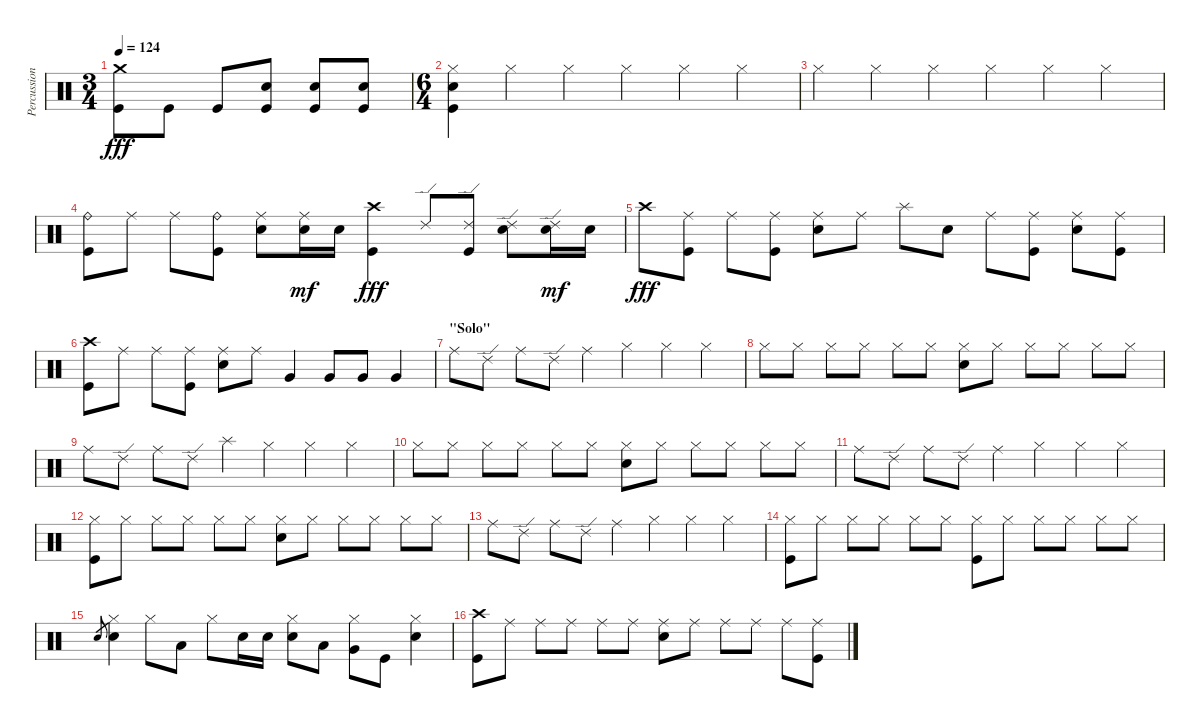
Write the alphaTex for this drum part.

\track ("Percussion" "Percussion") {instrument percussion}
\staff {score}
\articulation defaults
\ts (3 4)
\tempo 124
\clef neutral
\ks c
("Crash medium (hit)" "Kick (hit)").8{dy fff} "Kick (hit)".8 "Kick (hit)".8 ("Snare (hit) 2" "Kick (hit)").8 ("Snare (hit) 2" "Kick (hit)").8 ("Snare (hit) 2" "Kick (hit)").8 |
\ts (6 4)
("Hi-Hat (closed)" "Snare (hit) 2" "Kick (hit)").4 "Hi-Hat (closed)".4 "Hi-Hat (closed)".4 "Hi-Hat (closed)".4 "Hi-Hat (closed)".4 "Hi-Hat (closed)".4 |
"Hi-Hat (closed)".4 "Hi-Hat (closed)".4 "Hi-Hat (closed)".4 "Hi-Hat (closed)".4 "Hi-Hat (closed)".4 "Hi-Hat (closed)".4 |
("Ride (bell)" "Kick (hit)").8 "Ride (middle)".8 "Ride (middle)".8 ("Ride (bell)" "Kick (hit)").8 ("Ride (middle)" "Snare (hit) 2").8 ("Ride (middle)" "Snare (hit) 2").16{dy mf} "Snare (hit) 2".16 ("Crash high (hit)" "Kick (hit)").4{dy fff} "Ride (edge) 2".8 ("Ride (edge) 2" "Kick (hit)").8 ("Ride (edge) 2" "Snare (hit) 2").8 ("Ride (edge) 2" "Snare (hit) 2").16{dy mf} "Snare (hit) 2".16 |
"Crash high (hit)".8{dy fff} ("Ride (middle)" "Kick (hit)").8 "Ride (middle)".8 ("Ride (middle)" "Kick (hit)").8 ("Ride (middle)" "Snare (hit) 2").8 "Ride (middle)".8 "Splash (hit)".8 "Snare (hit) 2".8 "Ride (middle)".8 ("Ride (middle)" "Kick (hit)").8 ("Ride (middle)" "Snare (hit) 2").8 ("Ride (middle)" "Kick (hit)").8 |
("Crash high (hit)" "Kick (hit)").8 "Ride (middle)".8 "Ride (middle)".8 ("Ride (middle)" "Kick (hit)").8 ("Ride (middle)" "Snare (hit) 2").8 "Ride (middle)".8 "Very Low Tom (hit)".4 "Very Low Tom (hit)".8 "Very Low Tom (hit)".8 "Very Low Tom (hit)".4 |
\section ("" "\"Solo\"")
"Ride (middle)".8 "Ride (edge) 2".8 "Ride (middle)".8 "Ride (edge) 2".8 "Ride (middle)".4 "Hi-Hat (closed)".4 "Hi-Hat (closed)".4 "Hi-Hat (closed)".4 |
"Hi-Hat (closed)".8 "Hi-Hat (closed)".8 "Hi-Hat (closed)".8 "Hi-Hat (closed)".8 "Hi-Hat (closed)".8 "Hi-Hat (closed)".8 ("Hi-Hat (closed)" "Electric Snare (hit)").8 "Hi-Hat (closed)".8 "Hi-Hat (closed)".8 "Hi-Hat (closed)".8 "Hi-Hat (closed)".8 "Hi-Hat (closed)".8 |
"Ride (middle)".8 "Ride (edge) 2".8 "Ride (middle)".8 "Ride (edge) 2".8 "Splash (hit)".4 "Hi-Hat (closed)".4 "Hi-Hat (closed)".4 "Hi-Hat (closed)".4 |
"Hi-Hat (closed)".8 "Hi-Hat (closed)".8 "Hi-Hat (closed)".8 "Hi-Hat (closed)".8 "Hi-Hat (closed)".8 "Hi-Hat (closed)".8 ("Hi-Hat (closed)" "Electric Snare (hit)").8 "Hi-Hat (closed)".8 "Hi-Hat (closed)".8 "Hi-Hat (closed)".8 "Hi-Hat (closed)".8 "Hi-Hat (closed)".8 |
"Ride (middle)".8 "Ride (edge) 2".8 "Ride (middle)".8 "Ride (edge) 2".8 "Ride (middle)".4 "Hi-Hat (closed)".4 "Hi-Hat (closed)".4 "Hi-Hat (closed)".4 |
("Hi-Hat (closed)" "Kick (hit)").8 "Hi-Hat (closed)".8 "Hi-Hat (closed)".8 "Hi-Hat (closed)".8 "Hi-Hat (closed)".8 "Hi-Hat (closed)".8 ("Hi-Hat (closed)" "Snare (hit) 2").8 "Hi-Hat (closed)".8 "Hi-Hat (closed)".8 "Hi-Hat (closed)".8 "Hi-Hat (closed)".8 "Hi-Hat (closed)".8 |
"Ride (middle)".8 "Ride (edge) 2".8 "Ride (middle)".8 "Ride (edge) 2".8 "Ride (middle)".4 "Hi-Hat (closed)".4 "Hi-Hat (closed)".4 "Hi-Hat (closed)".4 |
("Hi-Hat (closed)" "Kick (hit)").8 "Hi-Hat (closed)".8 "Hi-Hat (closed)".8 "Hi-Hat (closed)".8 "Hi-Hat (closed)".8 "Hi-Hat (closed)".8 ("Hi-Hat (closed)" "Kick (hit)").8 "Hi-Hat (closed)".8 "Hi-Hat (closed)".8 "Hi-Hat (closed)".8 "Hi-Hat (closed)".8 "Hi-Hat (closed)".8 |
"Snare (hit) 2".8{gr} ("Hi-Hat (closed)" "Snare (hit) 2").4 "Hi-Hat (closed)".8 "Low Tom (hit)".8 "Hi-Hat (closed)".8 "Snare (hit) 2".16 "Snare (hit) 2".16 ("Hi-Hat (closed)" "Snare (hit) 2").8 "Low Tom (hit)".8 ("Hi-Hat (closed)" "Very Low Tom (hit)").8 "Kick (hit)".8 ("Hi-Hat (closed)" "Snare (hit) 2").4 |
("Crash high (hit)" "Kick (hit)").8 "Ride (middle)".8 "Ride (middle)".8 "Ride (middle)".8 "Ride (middle)".8 "Ride (middle)".8 ("Ride (middle)" "Snare (hit) 2").8 "Ride (middle)".8 "Ride (middle)".8 "Ride (middle)".8 "Ride (middle)".8 ("Ride (middle)" "Kick (hit)").8
